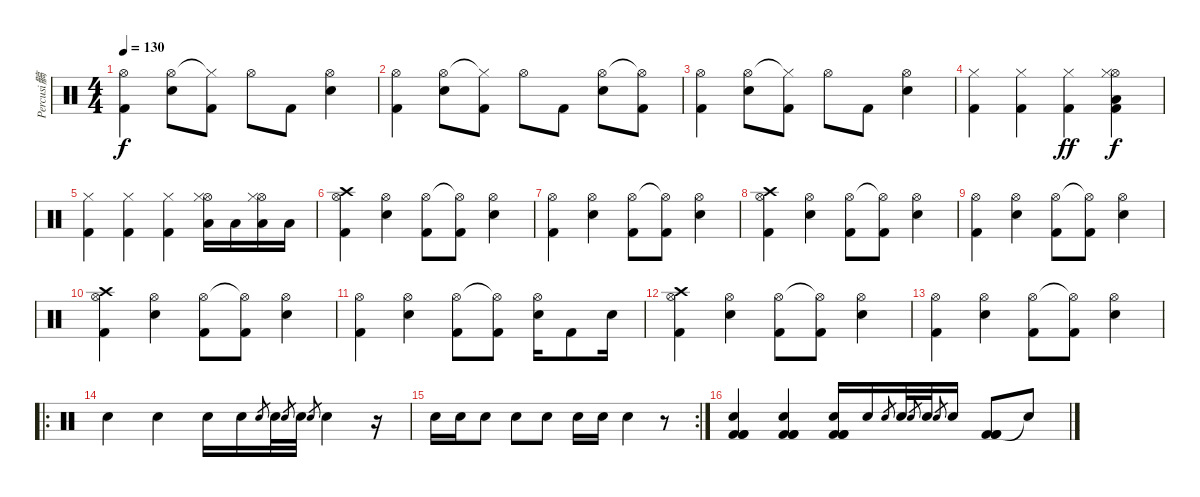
\track ("Percusi髇" "Percusi髇") {instrument percussion}
\staff {score}
\articulation defaults
\ts (4 4)
\tempo 130
\clef neutral
\ks c
("Hi-Hat (open)" "Kick (hit) 2").4{dy f} ("Hi-Hat (open)" "Electric Snare (hit)").8 ("Hi-Hat (closed)"{t} "Kick (hit) 2").8 "Hi-Hat (open)".8 "Kick (hit) 2".8 ("Hi-Hat (open)" "Electric Snare (hit)").4 |
("Hi-Hat (open)" "Kick (hit) 2").4 ("Hi-Hat (open)" "Electric Snare (hit)").8 ("Hi-Hat (closed)"{t} "Kick (hit) 2").8 "Hi-Hat (open)".8 "Kick (hit) 2".8 ("Hi-Hat (open)" "Electric Snare (hit)").8 ("Hi-Hat (open)"{t} "Kick (hit) 2").8 |
("Hi-Hat (open)" "Kick (hit) 2").4 ("Hi-Hat (open)" "Electric Snare (hit)").8 ("Hi-Hat (closed)"{t} "Kick (hit) 2").8 "Hi-Hat (open)".8 "Kick (hit) 2".8 ("Hi-Hat (open)" "Electric Snare (hit)").4 |
("Hi-Hat (closed)" "Kick (hit) 2").4 ("Hi-Hat (closed)" "Kick (hit) 2").4 ("Hi-Hat (closed)" "Kick (hit) 2").4{dy ff} ("Hi-Hat (open)" "Low Floor Tom (hit)" "Hi-Hat (closed)" "Kick (hit) 2").4{dy f} |
("Hi-Hat (closed)" "Kick (hit) 2").4 ("Hi-Hat (closed)" "Kick (hit) 2").4 ("Hi-Hat (closed)" "Kick (hit) 2").4 ("Hi-Hat (open)" "Hi-Hat (closed)" "Low Tom (hit)").16 "Low Tom (hit)".16 ("Hi-Hat (open)" "Hi-Hat (closed)" "Low Tom (hit)").16 "Low Tom (hit)".16 |
("Crash high (hit)" "Hi-Hat (open)" "Kick (hit) 2").4 ("Hi-Hat (open)" "Electric Snare (hit)").4 ("Hi-Hat (open)" "Kick (hit) 2").8 ("Hi-Hat (open)"{t} "Kick (hit) 2").8 ("Hi-Hat (open)" "Electric Snare (hit)").4 |
("Hi-Hat (open)" "Kick (hit) 2").4 ("Hi-Hat (open)" "Electric Snare (hit)").4 ("Hi-Hat (open)" "Kick (hit) 2").8 ("Hi-Hat (open)"{t} "Kick (hit) 2").8 ("Hi-Hat (open)" "Electric Snare (hit)").4 |
("Crash high (hit)" "Hi-Hat (open)" "Kick (hit) 2").4 ("Hi-Hat (open)" "Electric Snare (hit)").4 ("Hi-Hat (open)" "Kick (hit) 2").8 ("Hi-Hat (open)"{t} "Kick (hit) 2").8 ("Hi-Hat (open)" "Electric Snare (hit)").4 |
("Hi-Hat (open)" "Kick (hit) 2").4 ("Hi-Hat (open)" "Electric Snare (hit)").4 ("Hi-Hat (open)" "Kick (hit) 2").8 ("Hi-Hat (open)"{t} "Kick (hit) 2").8 ("Hi-Hat (open)" "Electric Snare (hit)").4 |
("Crash high (hit)" "Hi-Hat (open)" "Kick (hit) 2").4 ("Hi-Hat (open)" "Electric Snare (hit)").4 ("Hi-Hat (open)" "Kick (hit) 2").8 ("Hi-Hat (open)"{t} "Kick (hit) 2").8 ("Hi-Hat (open)" "Electric Snare (hit)").4 |
("Hi-Hat (open)" "Kick (hit) 2").4 ("Hi-Hat (open)" "Electric Snare (hit)").4 ("Hi-Hat (open)" "Kick (hit) 2").8 ("Hi-Hat (open)"{t} "Kick (hit) 2").8 ("Hi-Hat (open)" "Electric Snare (hit)").16 "Kick (hit) 2".8 "Electric Snare (hit)".16 |
("Crash high (hit)" "Hi-Hat (open)" "Kick (hit) 2").4 ("Hi-Hat (open)" "Electric Snare (hit)").4 ("Hi-Hat (open)" "Kick (hit) 2").8 ("Hi-Hat (open)"{t} "Kick (hit) 2").8 ("Hi-Hat (open)" "Electric Snare (hit)").4 |
("Hi-Hat (open)" "Kick (hit) 2").4 ("Hi-Hat (open)" "Electric Snare (hit)").4 ("Hi-Hat (open)" "Kick (hit) 2").8 ("Hi-Hat (open)"{t} "Kick (hit) 2").8 ("Hi-Hat (open)" "Electric Snare (hit)").4 |
\ro "Electric Snare (hit)".4 "Electric Snare (hit)".4 "Electric Snare (hit)".16 "Electric Snare (hit)".16 "Electric Snare (hit)".8{gr} "Electric Snare (hit)".32 "Electric Snare (hit)".8{gr} "Electric Snare (hit)".32 "Electric Snare (hit)".8{gr} "Electric Snare (hit)".4
r.16 |
\rc 2 "Electric Snare (hit)".16 "Electric Snare (hit)".16 "Electric Snare (hit)".8 "Electric Snare (hit)".8 "Electric Snare (hit)".8 "Electric Snare (hit)".16 "Electric Snare (hit)".16 "Electric Snare (hit)".4
r.8 |
("Kick (hit) 2" "Kick (hit) 2" "Kick (hit) 2" "Electric Snare (hit)").4 ("Kick (hit) 2" "Kick (hit) 2" "Kick (hit) 2" "Electric Snare (hit)").4 ("Kick (hit) 2" "Kick (hit) 2" "Kick (hit) 2" "Electric Snare (hit)").16 "Electric Snare (hit)".16 "Electric Snare (hit)".8{gr} "Electric Snare (hit)".32 "Electric Snare (hit)".8{gr} "Electric Snare (hit)".32 "Electric Snare (hit)".8{gr} "Electric Snare (hit)".16 ("Kick (hit) 2" "Kick (hit) 2" "Kick (hit) 2").8 "Snare (hit)"{t}.8
